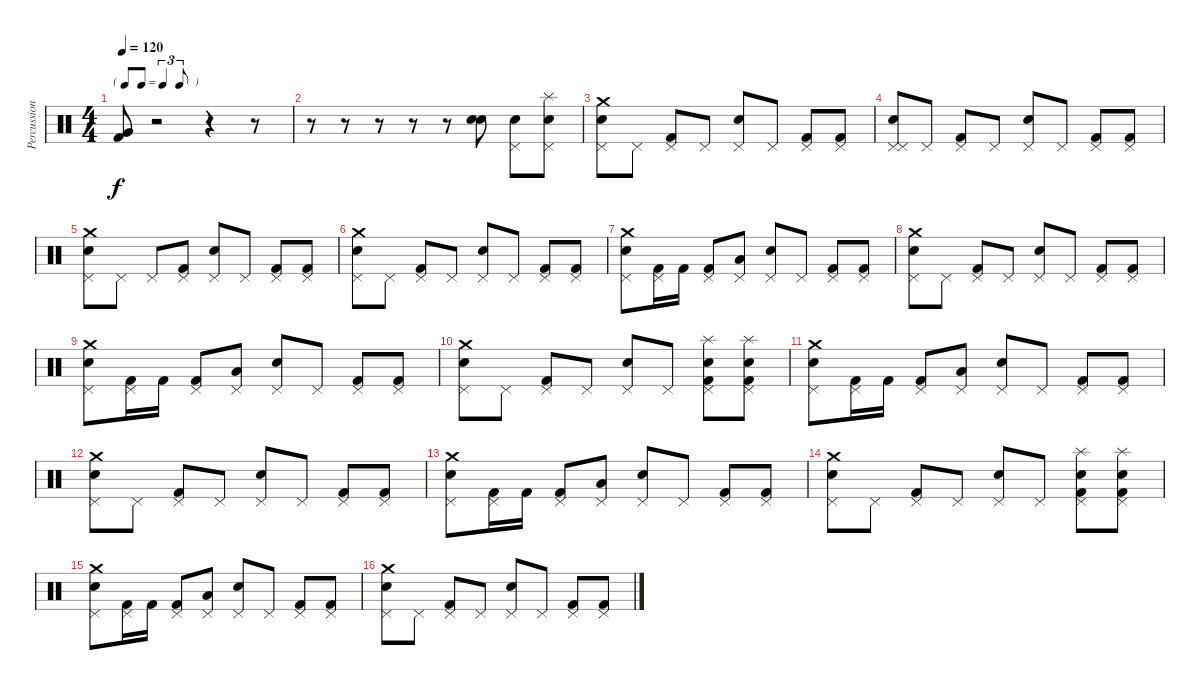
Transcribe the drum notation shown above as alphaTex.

\track ("Percussions" "Percussion") {instrument percussion}
\staff {score}
\articulation defaults
\ts (4 4)
\tf triplet8th
\tempo 120
\clef neutral
\ks c
("Very Low Tom (hit)" "Kick (hit) 2").8{dy f} r.2 r.4 r.8 |
r.8 r.8 r.8 r.8 r.8 ("Electric Snare (hit)" "Snare (hit) 2").8 ("Pedal Hi-Hat (hit)" "Snare (hit) 2").8 ("Pedal Hi-Hat (hit)" "Splash (hit)" "Snare (hit) 2").8 |
("Snare (hit) 2" "Crash medium (hit)" "Pedal Hi-Hat (hit)").8 "Pedal Hi-Hat (hit)".8 ("Kick (hit) 2" "Pedal Hi-Hat (hit)").8 "Pedal Hi-Hat (hit)".8 ("Electric Snare (hit)" "Pedal Hi-Hat (hit)").8 "Pedal Hi-Hat (hit)".8 ("Kick (hit) 2" "Pedal Hi-Hat (hit)").8 ("Kick (hit) 2" "Pedal Hi-Hat (hit)").8 |
("Snare (hit) 2" "Pedal Hi-Hat (hit)" "Pedal Hi-Hat (hit)").8 "Pedal Hi-Hat (hit)".8 ("Kick (hit) 2" "Pedal Hi-Hat (hit)").8 "Pedal Hi-Hat (hit)".8 ("Electric Snare (hit)" "Pedal Hi-Hat (hit)").8 "Pedal Hi-Hat (hit)".8 ("Kick (hit) 2" "Pedal Hi-Hat (hit)").8 ("Kick (hit) 2" "Pedal Hi-Hat (hit)").8 |
("Snare (hit) 2" "Crash medium (hit)" "Pedal Hi-Hat (hit)").8 "Pedal Hi-Hat (hit)".8 "Pedal Hi-Hat (hit)".8 ("Kick (hit) 2" "Pedal Hi-Hat (hit)").8 ("Electric Snare (hit)" "Pedal Hi-Hat (hit)").8 "Pedal Hi-Hat (hit)".8 ("Kick (hit) 2" "Pedal Hi-Hat (hit)").8 ("Kick (hit) 2" "Pedal Hi-Hat (hit)").8 |
("Snare (hit) 2" "Crash medium (hit)" "Pedal Hi-Hat (hit)").8 "Pedal Hi-Hat (hit)".8 ("Kick (hit) 2" "Pedal Hi-Hat (hit)").8 "Pedal Hi-Hat (hit)".8 ("Electric Snare (hit)" "Pedal Hi-Hat (hit)").8 "Pedal Hi-Hat (hit)".8 ("Kick (hit) 2" "Pedal Hi-Hat (hit)").8 ("Kick (hit) 2" "Pedal Hi-Hat (hit)").8 |
("Snare (hit) 2" "Crash medium (hit)" "Pedal Hi-Hat (hit)").8 ("Kick (hit) 2" "Pedal Hi-Hat (hit)").16 "Kick (hit) 2".16 ("Kick (hit) 2" "Pedal Hi-Hat (hit)").8 ("Low Tom (hit)" "Pedal Hi-Hat (hit)").8 ("Electric Snare (hit)" "Pedal Hi-Hat (hit)").8 "Pedal Hi-Hat (hit)".8 ("Kick (hit) 2" "Pedal Hi-Hat (hit)").8 ("Kick (hit) 2" "Pedal Hi-Hat (hit)").8 |
("Snare (hit) 2" "Crash medium (hit)" "Pedal Hi-Hat (hit)").8 "Pedal Hi-Hat (hit)".8 ("Kick (hit) 2" "Pedal Hi-Hat (hit)").8 "Pedal Hi-Hat (hit)".8 ("Electric Snare (hit)" "Pedal Hi-Hat (hit)").8 "Pedal Hi-Hat (hit)".8 ("Kick (hit) 2" "Pedal Hi-Hat (hit)").8 ("Kick (hit) 2" "Pedal Hi-Hat (hit)").8 |
("Snare (hit) 2" "Crash medium (hit)" "Pedal Hi-Hat (hit)").8 ("Kick (hit) 2" "Pedal Hi-Hat (hit)").16 "Kick (hit) 2".16 ("Kick (hit) 2" "Pedal Hi-Hat (hit)").8 ("Low Tom (hit)" "Pedal Hi-Hat (hit)").8 ("Electric Snare (hit)" "Pedal Hi-Hat (hit)").8 "Pedal Hi-Hat (hit)".8 ("Kick (hit) 2" "Pedal Hi-Hat (hit)").8 ("Kick (hit) 2" "Pedal Hi-Hat (hit)").8 |
("Snare (hit) 2" "Crash medium (hit)" "Pedal Hi-Hat (hit)").8 "Pedal Hi-Hat (hit)".8 ("Kick (hit) 2" "Pedal Hi-Hat (hit)").8 "Pedal Hi-Hat (hit)".8 ("Electric Snare (hit)" "Pedal Hi-Hat (hit)").8 "Pedal Hi-Hat (hit)".8 ("Electric Snare (hit)" "Splash (hit)" "Kick (hit) 2" "Pedal Hi-Hat (hit)").8 ("Electric Snare (hit)" "Splash (hit)" "Kick (hit) 2" "Pedal Hi-Hat (hit)").8 |
("Snare (hit) 2" "Crash medium (hit)" "Pedal Hi-Hat (hit)").8 ("Kick (hit) 2" "Pedal Hi-Hat (hit)").16 "Kick (hit) 2".16 ("Kick (hit) 2" "Pedal Hi-Hat (hit)").8 ("Low Tom (hit)" "Pedal Hi-Hat (hit)").8 ("Electric Snare (hit)" "Pedal Hi-Hat (hit)").8 "Pedal Hi-Hat (hit)".8 ("Kick (hit) 2" "Pedal Hi-Hat (hit)").8 ("Kick (hit) 2" "Pedal Hi-Hat (hit)").8 |
("Snare (hit) 2" "Crash medium (hit)" "Pedal Hi-Hat (hit)").8 "Pedal Hi-Hat (hit)".8 ("Kick (hit) 2" "Pedal Hi-Hat (hit)").8 "Pedal Hi-Hat (hit)".8 ("Electric Snare (hit)" "Pedal Hi-Hat (hit)").8 "Pedal Hi-Hat (hit)".8 ("Kick (hit) 2" "Pedal Hi-Hat (hit)").8 ("Kick (hit) 2" "Pedal Hi-Hat (hit)").8 |
("Snare (hit) 2" "Crash medium (hit)" "Pedal Hi-Hat (hit)").8 ("Kick (hit) 2" "Pedal Hi-Hat (hit)").16 "Kick (hit) 2".16 ("Kick (hit) 2" "Pedal Hi-Hat (hit)").8 ("Low Tom (hit)" "Pedal Hi-Hat (hit)").8 ("Electric Snare (hit)" "Pedal Hi-Hat (hit)").8 "Pedal Hi-Hat (hit)".8 ("Kick (hit) 2" "Pedal Hi-Hat (hit)").8 ("Kick (hit) 2" "Pedal Hi-Hat (hit)").8 |
("Snare (hit) 2" "Crash medium (hit)" "Pedal Hi-Hat (hit)").8 "Pedal Hi-Hat (hit)".8 ("Kick (hit) 2" "Pedal Hi-Hat (hit)").8 "Pedal Hi-Hat (hit)".8 ("Electric Snare (hit)" "Pedal Hi-Hat (hit)").8 "Pedal Hi-Hat (hit)".8 ("Electric Snare (hit)" "Splash (hit)" "Kick (hit) 2" "Pedal Hi-Hat (hit)").8 ("Electric Snare (hit)" "Splash (hit)" "Kick (hit) 2" "Pedal Hi-Hat (hit)").8 |
("Snare (hit) 2" "Crash medium (hit)" "Pedal Hi-Hat (hit)").8 ("Kick (hit) 2" "Pedal Hi-Hat (hit)").16 "Kick (hit) 2".16 ("Kick (hit) 2" "Pedal Hi-Hat (hit)").8 ("Low Tom (hit)" "Pedal Hi-Hat (hit)").8 ("Electric Snare (hit)" "Pedal Hi-Hat (hit)").8 "Pedal Hi-Hat (hit)".8 ("Kick (hit) 2" "Pedal Hi-Hat (hit)").8 ("Kick (hit) 2" "Pedal Hi-Hat (hit)").8 |
("Snare (hit) 2" "Crash medium (hit)" "Pedal Hi-Hat (hit)").8 "Pedal Hi-Hat (hit)".8 ("Kick (hit) 2" "Pedal Hi-Hat (hit)").8 "Pedal Hi-Hat (hit)".8 ("Electric Snare (hit)" "Pedal Hi-Hat (hit)").8 "Pedal Hi-Hat (hit)".8 ("Kick (hit) 2" "Pedal Hi-Hat (hit)").8 ("Kick (hit) 2" "Pedal Hi-Hat (hit)").8
